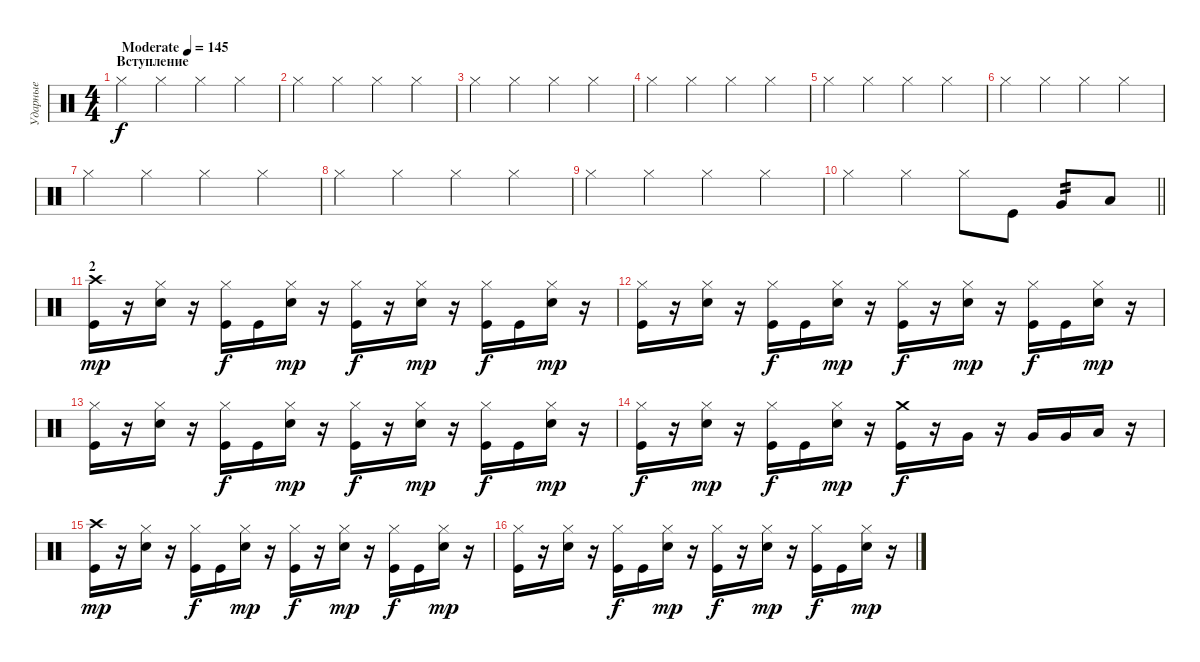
\track ("Ударные" "Ударные") {instrument percussion}
\staff {score}
\articulation defaults
\ts (4 4)
\section ("" "Вступление")
\tempo (145 "Moderate")
\clef neutral
\ks c "Hi-Hat (closed)".4{dy f} "Hi-Hat (closed)".4 "Hi-Hat (closed)".4 "Hi-Hat (closed)".4
|
"Hi-Hat (closed)".4 "Hi-Hat (closed)".4 "Hi-Hat (closed)".4 "Hi-Hat (closed)".4 |
"Hi-Hat (closed)".4 "Hi-Hat (closed)".4 "Hi-Hat (closed)".4 "Hi-Hat (closed)".4 |
"Hi-Hat (closed)".4 "Hi-Hat (closed)".4 "Hi-Hat (closed)".4 "Hi-Hat (closed)".4 |
"Hi-Hat (closed)".4 "Hi-Hat (closed)".4 "Hi-Hat (closed)".4 "Hi-Hat (closed)".4 |
"Hi-Hat (closed)".4 "Hi-Hat (closed)".4 "Hi-Hat (closed)".4 "Hi-Hat (closed)".4 |
"Hi-Hat (closed)".4 "Hi-Hat (closed)".4 "Hi-Hat (closed)".4 "Hi-Hat (closed)".4 |
"Hi-Hat (closed)".4 "Hi-Hat (closed)".4 "Hi-Hat (closed)".4 "Hi-Hat (closed)".4 |
"Hi-Hat (closed)".4 "Hi-Hat (closed)".4 "Hi-Hat (closed)".4 "Hi-Hat (closed)".4 |
\barLineRight lightlight "Hi-Hat (closed)".4 "Hi-Hat (closed)".4 "Hi-Hat (closed)".8 "Kick (hit)".8 "Very Low Tom (hit)".8{tp 2} "Low Floor Tom (hit)".8
|
\section ("" "2")
("Crash high (hit)" "Kick (hit)").16{dy mp} r.16 ("Hi-Hat (closed)" "Snare (hit) 2").16 r.16 ("Hi-Hat (closed)" "Kick (hit)").16{dy f} "Kick (hit)".16 ("Hi-Hat (closed)" "Snare (hit) 2").16{dy mp} r.16 ("Hi-Hat (closed)" "Kick (hit)").16{dy f} r.16 ("Hi-Hat (closed)" "Snare (hit) 2").16{dy mp} r.16 ("Hi-Hat (closed)" "Kick (hit)").16{dy f} "Kick (hit)".16 ("Hi-Hat (closed)" "Snare (hit) 2").16{dy mp} r.16 |
("Hi-Hat (closed)" "Kick (hit)").16 r.16 ("Hi-Hat (closed)" "Snare (hit) 2").16 r.16 ("Hi-Hat (closed)" "Kick (hit)").16{dy f} "Kick (hit)".16 ("Hi-Hat (closed)" "Snare (hit) 2").16{dy mp} r.16 ("Hi-Hat (closed)" "Kick (hit)").16{dy f} r.16 ("Hi-Hat (closed)" "Snare (hit) 2").16{dy mp} r.16 ("Hi-Hat (closed)" "Kick (hit)").16{dy f} "Kick (hit)".16 ("Hi-Hat (closed)" "Snare (hit) 2").16{dy mp} r.16 |
("Hi-Hat (closed)" "Kick (hit)").16 r.16 ("Hi-Hat (closed)" "Snare (hit) 2").16 r.16 ("Hi-Hat (closed)" "Kick (hit)").16{dy f} "Kick (hit)".16 ("Hi-Hat (closed)" "Snare (hit) 2").16{dy mp} r.16 ("Hi-Hat (closed)" "Kick (hit)").16{dy f} r.16 ("Hi-Hat (closed)" "Snare (hit) 2").16{dy mp} r.16 ("Hi-Hat (closed)" "Kick (hit)").16{dy f} "Kick (hit)".16 ("Hi-Hat (closed)" "Snare (hit) 2").16{dy mp} r.16 |
("Hi-Hat (closed)" "Kick (hit)").16{dy f} r.16 ("Hi-Hat (closed)" "Snare (hit) 2").16{dy mp} r.16 ("Hi-Hat (closed)" "Kick (hit)").16{dy f} "Kick (hit)".16 ("Hi-Hat (closed)" "Snare (hit) 2").16{dy mp} r.16 ("Crash medium (hit)" "Kick (hit)").16{dy f} r.16 "Very Low Tom (hit)".16 r.16 "Very Low Tom (hit)".16 "Very Low Tom (hit)".16 "Low Floor Tom (hit)".16 r.16 |
("Crash high (hit)" "Kick (hit)").16{dy mp} r.16 ("Hi-Hat (closed)" "Snare (hit) 2").16 r.16 ("Hi-Hat (closed)" "Kick (hit)").16{dy f} "Kick (hit)".16 ("Hi-Hat (closed)" "Snare (hit) 2").16{dy mp} r.16 ("Hi-Hat (closed)" "Kick (hit)").16{dy f} r.16 ("Hi-Hat (closed)" "Snare (hit) 2").16{dy mp} r.16 ("Hi-Hat (closed)" "Kick (hit)").16{dy f} "Kick (hit)".16 ("Hi-Hat (closed)" "Snare (hit) 2").16{dy mp} r.16 |
("Hi-Hat (closed)" "Kick (hit)").16 r.16 ("Hi-Hat (closed)" "Snare (hit) 2").16 r.16 ("Hi-Hat (closed)" "Kick (hit)").16{dy f} "Kick (hit)".16 ("Hi-Hat (closed)" "Snare (hit) 2").16{dy mp} r.16 ("Hi-Hat (closed)" "Kick (hit)").16{dy f} r.16 ("Hi-Hat (closed)" "Snare (hit) 2").16{dy mp} r.16 ("Hi-Hat (closed)" "Kick (hit)").16{dy f} "Kick (hit)".16 ("Hi-Hat (closed)" "Snare (hit) 2").16{dy mp} r.16
